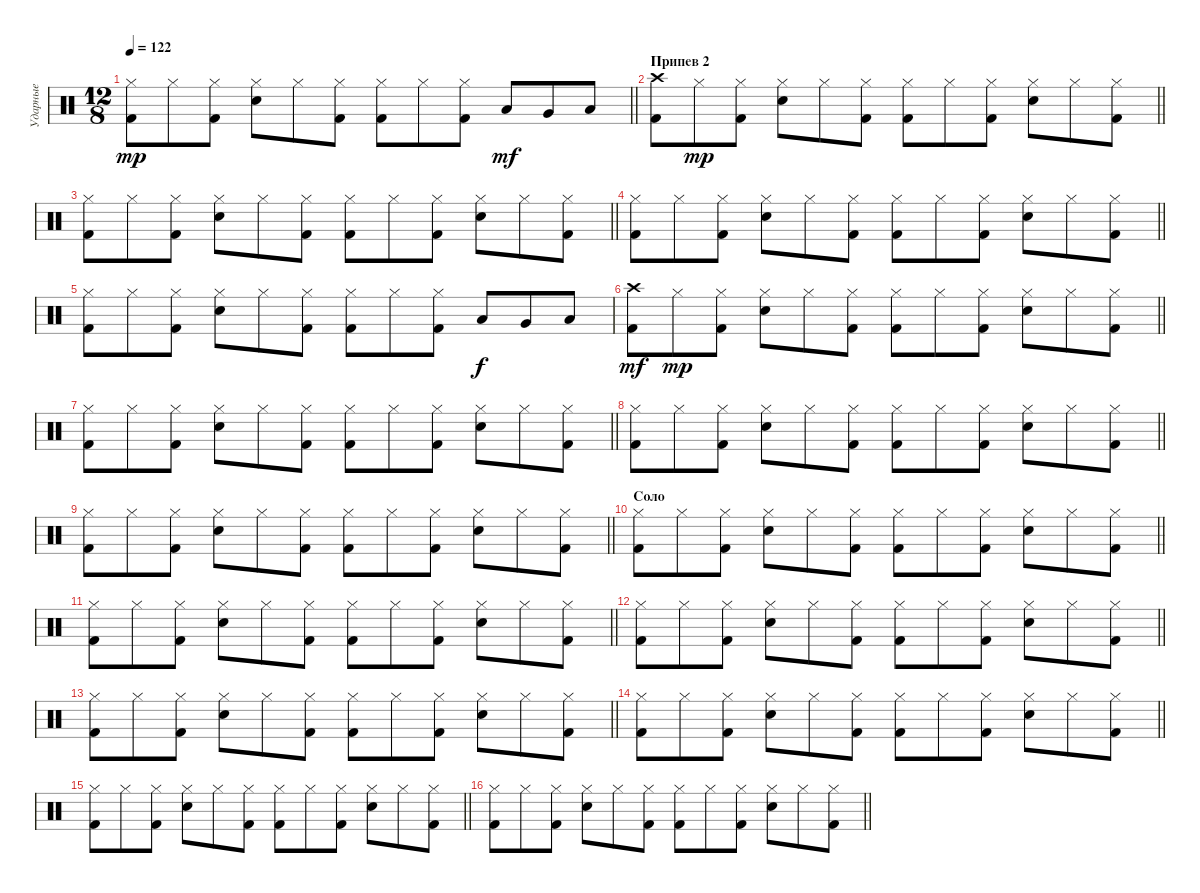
\track ("Ударные" "Ударные") {instrument percussion}
\staff {score}
\articulation defaults
\ts (12 8)
\tempo 122
\clef neutral
\barLineRight lightlight
\ks c
("Hi-Hat (closed)" "Kick (hit) 2").8{dy mp} "Hi-Hat (closed)".8 ("Hi-Hat (closed)" "Kick (hit) 2").8 ("Hi-Hat (closed)" "Electric Snare (hit)").8 "Hi-Hat (closed)".8 ("Hi-Hat (closed)" "Kick (hit) 2").8 ("Hi-Hat (closed)" "Kick (hit) 2").8 "Hi-Hat (closed)".8 ("Hi-Hat (closed)" "Kick (hit) 2").8 "Low Tom (hit)".8{dy mf} "Very Low Tom (hit)".8 "Low Floor Tom (hit)".8 |
\section ("" "Припев 2")
\barLineRight lightlight
("Crash high (hit)" "Kick (hit) 2").8 "Hi-Hat (closed)".8{dy mp} ("Hi-Hat (closed)" "Kick (hit) 2").8 ("Hi-Hat (closed)" "Electric Snare (hit)").8 "Hi-Hat (closed)".8 ("Hi-Hat (closed)" "Kick (hit) 2").8 ("Hi-Hat (closed)" "Kick (hit) 2").8 "Hi-Hat (closed)".8 ("Hi-Hat (closed)" "Kick (hit) 2").8 ("Hi-Hat (closed)" "Electric Snare (hit)").8 "Hi-Hat (closed)".8 ("Hi-Hat (closed)" "Kick (hit) 2").8 |
\barLineRight lightlight
("Hi-Hat (closed)" "Kick (hit) 2").8 "Hi-Hat (closed)".8 ("Hi-Hat (closed)" "Kick (hit) 2").8 ("Hi-Hat (closed)" "Electric Snare (hit)").8 "Hi-Hat (closed)".8 ("Hi-Hat (closed)" "Kick (hit) 2").8 ("Hi-Hat (closed)" "Kick (hit) 2").8 "Hi-Hat (closed)".8 ("Hi-Hat (closed)" "Kick (hit) 2").8 ("Hi-Hat (closed)" "Electric Snare (hit)").8 "Hi-Hat (closed)".8 ("Hi-Hat (closed)" "Kick (hit) 2").8 |
\barLineRight lightlight
("Hi-Hat (closed)" "Kick (hit) 2").8 "Hi-Hat (closed)".8 ("Hi-Hat (closed)" "Kick (hit) 2").8 ("Hi-Hat (closed)" "Electric Snare (hit)").8 "Hi-Hat (closed)".8 ("Hi-Hat (closed)" "Kick (hit) 2").8 ("Hi-Hat (closed)" "Kick (hit) 2").8 "Hi-Hat (closed)".8 ("Hi-Hat (closed)" "Kick (hit) 2").8 ("Hi-Hat (closed)" "Electric Snare (hit)").8 "Hi-Hat (closed)".8 ("Hi-Hat (closed)" "Kick (hit) 2").8 |
("Hi-Hat (closed)" "Kick (hit) 2").8 "Hi-Hat (closed)".8 ("Hi-Hat (closed)" "Kick (hit) 2").8 ("Hi-Hat (closed)" "Electric Snare (hit)").8 "Hi-Hat (closed)".8 ("Hi-Hat (closed)" "Kick (hit) 2").8 ("Hi-Hat (closed)" "Kick (hit) 2").8 "Hi-Hat (closed)".8 ("Hi-Hat (closed)" "Kick (hit) 2").8 "Low Tom (hit)".8{dy f} "Very Low Tom (hit)".8 "Low Floor Tom (hit)".8 |
\barLineRight lightlight
("Crash high (hit)" "Kick (hit) 2").8{dy mf} "Hi-Hat (closed)".8{dy mp} ("Hi-Hat (closed)" "Kick (hit) 2").8 ("Hi-Hat (closed)" "Electric Snare (hit)").8 "Hi-Hat (closed)".8 ("Hi-Hat (closed)" "Kick (hit) 2").8 ("Hi-Hat (closed)" "Kick (hit) 2").8 "Hi-Hat (closed)".8 ("Hi-Hat (closed)" "Kick (hit) 2").8 ("Hi-Hat (closed)" "Electric Snare (hit)").8 "Hi-Hat (closed)".8 ("Hi-Hat (closed)" "Kick (hit) 2").8 |
\barLineRight lightlight
("Hi-Hat (closed)" "Kick (hit) 2").8 "Hi-Hat (closed)".8 ("Hi-Hat (closed)" "Kick (hit) 2").8 ("Hi-Hat (closed)" "Electric Snare (hit)").8 "Hi-Hat (closed)".8 ("Hi-Hat (closed)" "Kick (hit) 2").8 ("Hi-Hat (closed)" "Kick (hit) 2").8 "Hi-Hat (closed)".8 ("Hi-Hat (closed)" "Kick (hit) 2").8 ("Hi-Hat (closed)" "Electric Snare (hit)").8 "Hi-Hat (closed)".8 ("Hi-Hat (closed)" "Kick (hit) 2").8 |
\barLineRight lightlight
("Hi-Hat (closed)" "Kick (hit) 2").8 "Hi-Hat (closed)".8 ("Hi-Hat (closed)" "Kick (hit) 2").8 ("Hi-Hat (closed)" "Electric Snare (hit)").8 "Hi-Hat (closed)".8 ("Hi-Hat (closed)" "Kick (hit) 2").8 ("Hi-Hat (closed)" "Kick (hit) 2").8 "Hi-Hat (closed)".8 ("Hi-Hat (closed)" "Kick (hit) 2").8 ("Hi-Hat (closed)" "Electric Snare (hit)").8 "Hi-Hat (closed)".8 ("Hi-Hat (closed)" "Kick (hit) 2").8 |
\barLineRight lightlight
("Hi-Hat (closed)" "Kick (hit) 2").8 "Hi-Hat (closed)".8 ("Hi-Hat (closed)" "Kick (hit) 2").8 ("Hi-Hat (closed)" "Electric Snare (hit)").8 "Hi-Hat (closed)".8 ("Hi-Hat (closed)" "Kick (hit) 2").8 ("Hi-Hat (closed)" "Kick (hit) 2").8 "Hi-Hat (closed)".8 ("Hi-Hat (closed)" "Kick (hit) 2").8 ("Hi-Hat (closed)" "Electric Snare (hit)").8 "Hi-Hat (closed)".8 ("Hi-Hat (closed)" "Kick (hit) 2").8 |
\section ("" "Соло")
\barLineRight lightlight
("Hi-Hat (closed)" "Kick (hit) 2").8 "Hi-Hat (closed)".8 ("Hi-Hat (closed)" "Kick (hit) 2").8 ("Hi-Hat (closed)" "Electric Snare (hit)").8 "Hi-Hat (closed)".8 ("Hi-Hat (closed)" "Kick (hit) 2").8 ("Hi-Hat (closed)" "Kick (hit) 2").8 "Hi-Hat (closed)".8 ("Hi-Hat (closed)" "Kick (hit) 2").8 ("Hi-Hat (closed)" "Electric Snare (hit)").8 "Hi-Hat (closed)".8 ("Hi-Hat (closed)" "Kick (hit) 2").8 |
\barLineRight lightlight
("Hi-Hat (closed)" "Kick (hit) 2").8 "Hi-Hat (closed)".8 ("Hi-Hat (closed)" "Kick (hit) 2").8 ("Hi-Hat (closed)" "Electric Snare (hit)").8 "Hi-Hat (closed)".8 ("Hi-Hat (closed)" "Kick (hit) 2").8 ("Hi-Hat (closed)" "Kick (hit) 2").8 "Hi-Hat (closed)".8 ("Hi-Hat (closed)" "Kick (hit) 2").8 ("Hi-Hat (closed)" "Electric Snare (hit)").8 "Hi-Hat (closed)".8 ("Hi-Hat (closed)" "Kick (hit) 2").8 |
\barLineRight lightlight
("Hi-Hat (closed)" "Kick (hit) 2").8 "Hi-Hat (closed)".8 ("Hi-Hat (closed)" "Kick (hit) 2").8 ("Hi-Hat (closed)" "Electric Snare (hit)").8 "Hi-Hat (closed)".8 ("Hi-Hat (closed)" "Kick (hit) 2").8 ("Hi-Hat (closed)" "Kick (hit) 2").8 "Hi-Hat (closed)".8 ("Hi-Hat (closed)" "Kick (hit) 2").8 ("Hi-Hat (closed)" "Electric Snare (hit)").8 "Hi-Hat (closed)".8 ("Hi-Hat (closed)" "Kick (hit) 2").8 |
\barLineRight lightlight
("Hi-Hat (closed)" "Kick (hit) 2").8 "Hi-Hat (closed)".8 ("Hi-Hat (closed)" "Kick (hit) 2").8 ("Hi-Hat (closed)" "Electric Snare (hit)").8 "Hi-Hat (closed)".8 ("Hi-Hat (closed)" "Kick (hit) 2").8 ("Hi-Hat (closed)" "Kick (hit) 2").8 "Hi-Hat (closed)".8 ("Hi-Hat (closed)" "Kick (hit) 2").8 ("Hi-Hat (closed)" "Electric Snare (hit)").8 "Hi-Hat (closed)".8 ("Hi-Hat (closed)" "Kick (hit) 2").8 |
\barLineRight lightlight
("Hi-Hat (closed)" "Kick (hit) 2").8 "Hi-Hat (closed)".8 ("Hi-Hat (closed)" "Kick (hit) 2").8 ("Hi-Hat (closed)" "Electric Snare (hit)").8 "Hi-Hat (closed)".8 ("Hi-Hat (closed)" "Kick (hit) 2").8 ("Hi-Hat (closed)" "Kick (hit) 2").8 "Hi-Hat (closed)".8 ("Hi-Hat (closed)" "Kick (hit) 2").8 ("Hi-Hat (closed)" "Electric Snare (hit)").8 "Hi-Hat (closed)".8 ("Hi-Hat (closed)" "Kick (hit) 2").8 |
\barLineRight lightlight
("Hi-Hat (closed)" "Kick (hit) 2").8 "Hi-Hat (closed)".8 ("Hi-Hat (closed)" "Kick (hit) 2").8 ("Hi-Hat (closed)" "Electric Snare (hit)").8 "Hi-Hat (closed)".8 ("Hi-Hat (closed)" "Kick (hit) 2").8 ("Hi-Hat (closed)" "Kick (hit) 2").8 "Hi-Hat (closed)".8 ("Hi-Hat (closed)" "Kick (hit) 2").8 ("Hi-Hat (closed)" "Electric Snare (hit)").8 "Hi-Hat (closed)".8 ("Hi-Hat (closed)" "Kick (hit) 2").8 |
\barLineRight lightlight
("Hi-Hat (closed)" "Kick (hit) 2").8 "Hi-Hat (closed)".8 ("Hi-Hat (closed)" "Kick (hit) 2").8 ("Hi-Hat (closed)" "Electric Snare (hit)").8 "Hi-Hat (closed)".8 ("Hi-Hat (closed)" "Kick (hit) 2").8 ("Hi-Hat (closed)" "Kick (hit) 2").8 "Hi-Hat (closed)".8 ("Hi-Hat (closed)" "Kick (hit) 2").8 ("Hi-Hat (closed)" "Electric Snare (hit)").8 "Hi-Hat (closed)".8 ("Hi-Hat (closed)" "Kick (hit) 2").8
